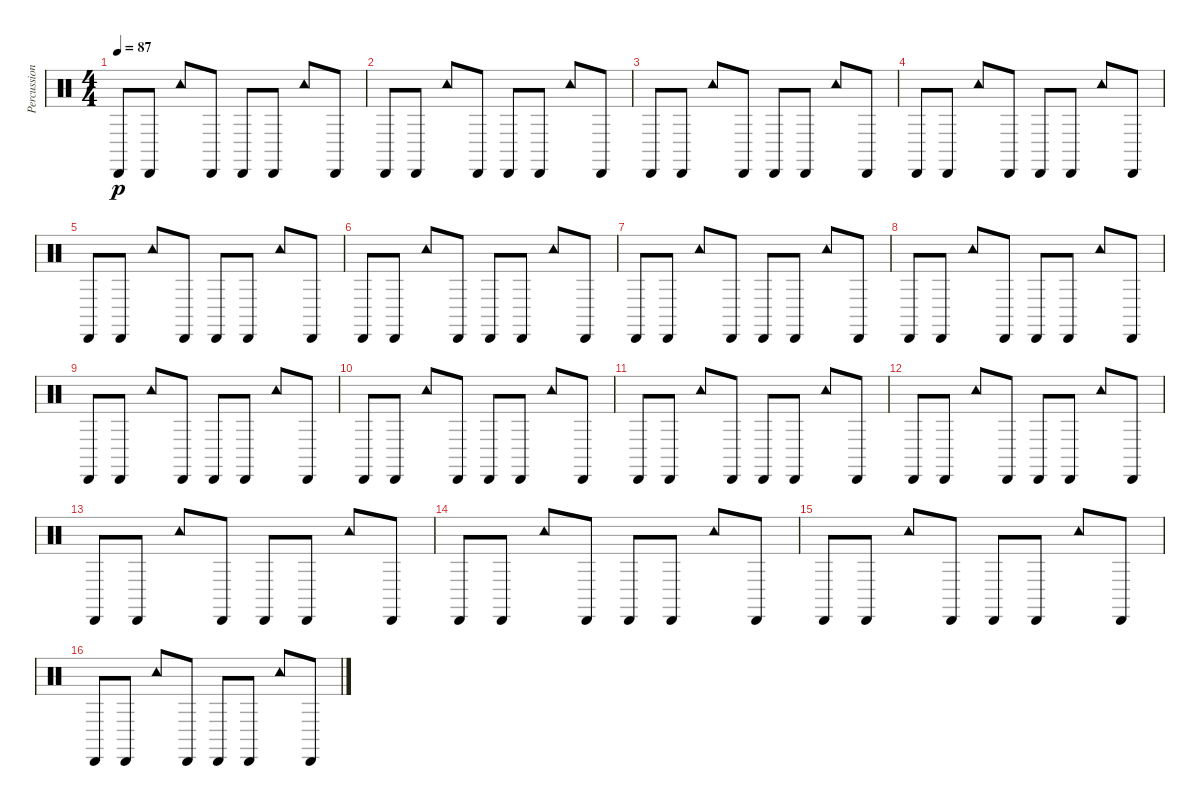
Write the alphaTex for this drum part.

\track ("Percussion" "Percussion") {instrument percussion}
\staff {score}
\articulation defaults
\ts (4 4)
\tempo 87
\clef neutral
\ks c "Cabasa (hit)".8{dy p} "Cabasa (hit)".8 "Tambourine (hit)".8 "Cabasa (hit)".8 "Cabasa (hit)".8 "Cabasa (hit)".8 "Tambourine (hit)".8 "Cabasa (hit)".8
|
"Cabasa (hit)".8 "Cabasa (hit)".8 "Tambourine (hit)".8 "Cabasa (hit)".8 "Cabasa (hit)".8 "Cabasa (hit)".8 "Tambourine (hit)".8 "Cabasa (hit)".8 |
"Cabasa (hit)".8 "Cabasa (hit)".8 "Tambourine (hit)".8 "Cabasa (hit)".8 "Cabasa (hit)".8 "Cabasa (hit)".8 "Tambourine (hit)".8 "Cabasa (hit)".8 |
"Cabasa (hit)".8 "Cabasa (hit)".8 "Tambourine (hit)".8 "Cabasa (hit)".8 "Cabasa (hit)".8 "Cabasa (hit)".8 "Tambourine (hit)".8 "Cabasa (hit)".8 |
"Cabasa (hit)".8 "Cabasa (hit)".8 "Tambourine (hit)".8 "Cabasa (hit)".8 "Cabasa (hit)".8 "Cabasa (hit)".8 "Tambourine (hit)".8 "Cabasa (hit)".8 |
"Cabasa (hit)".8 "Cabasa (hit)".8 "Tambourine (hit)".8 "Cabasa (hit)".8 "Cabasa (hit)".8 "Cabasa (hit)".8 "Tambourine (hit)".8 "Cabasa (hit)".8 |
"Cabasa (hit)".8 "Cabasa (hit)".8 "Tambourine (hit)".8 "Cabasa (hit)".8 "Cabasa (hit)".8 "Cabasa (hit)".8 "Tambourine (hit)".8 "Cabasa (hit)".8 |
"Cabasa (hit)".8 "Cabasa (hit)".8 "Tambourine (hit)".8 "Cabasa (hit)".8 "Cabasa (hit)".8 "Cabasa (hit)".8 "Tambourine (hit)".8 "Cabasa (hit)".8 |
"Cabasa (hit)".8 "Cabasa (hit)".8 "Tambourine (hit)".8 "Cabasa (hit)".8 "Cabasa (hit)".8 "Cabasa (hit)".8 "Tambourine (hit)".8 "Cabasa (hit)".8 |
"Cabasa (hit)".8 "Cabasa (hit)".8 "Tambourine (hit)".8 "Cabasa (hit)".8 "Cabasa (hit)".8 "Cabasa (hit)".8 "Tambourine (hit)".8 "Cabasa (hit)".8 |
"Cabasa (hit)".8 "Cabasa (hit)".8 "Tambourine (hit)".8 "Cabasa (hit)".8 "Cabasa (hit)".8 "Cabasa (hit)".8 "Tambourine (hit)".8 "Cabasa (hit)".8 |
"Cabasa (hit)".8 "Cabasa (hit)".8 "Tambourine (hit)".8 "Cabasa (hit)".8 "Cabasa (hit)".8 "Cabasa (hit)".8 "Tambourine (hit)".8 "Cabasa (hit)".8 |
"Cabasa (hit)".8 "Cabasa (hit)".8 "Tambourine (hit)".8 "Cabasa (hit)".8 "Cabasa (hit)".8 "Cabasa (hit)".8 "Tambourine (hit)".8 "Cabasa (hit)".8 |
"Cabasa (hit)".8 "Cabasa (hit)".8 "Tambourine (hit)".8 "Cabasa (hit)".8 "Cabasa (hit)".8 "Cabasa (hit)".8 "Tambourine (hit)".8 "Cabasa (hit)".8 |
"Cabasa (hit)".8 "Cabasa (hit)".8 "Tambourine (hit)".8 "Cabasa (hit)".8 "Cabasa (hit)".8 "Cabasa (hit)".8 "Tambourine (hit)".8 "Cabasa (hit)".8 |
"Cabasa (hit)".8 "Cabasa (hit)".8 "Tambourine (hit)".8 "Cabasa (hit)".8 "Cabasa (hit)".8 "Cabasa (hit)".8 "Tambourine (hit)".8 "Cabasa (hit)".8
